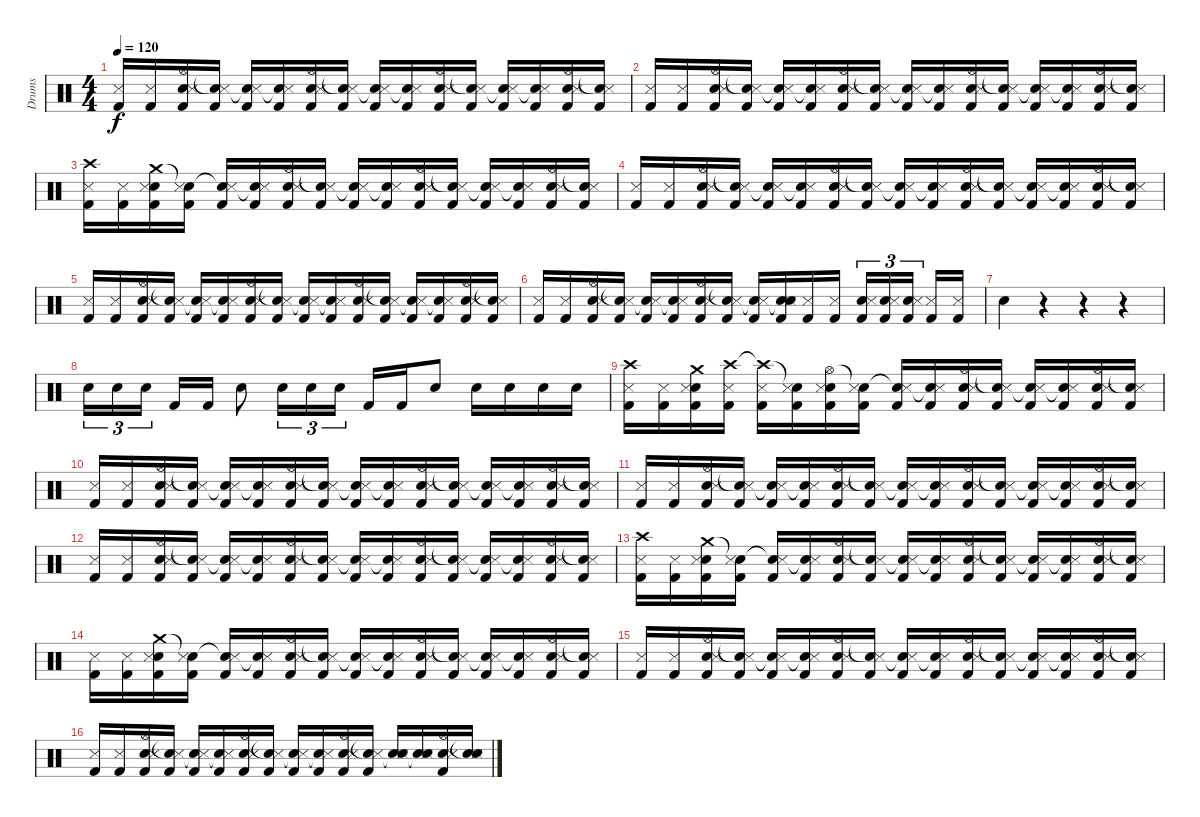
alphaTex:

\track ("Drums" "Drums") {instrument percussion}
\staff {score}
\articulation defaults
\ts (4 4)
\tempo 120
\clef neutral
\ks c
("Kick (hit) 2" "Snare (side stick) 3").16{dy f} ("Kick (hit) 2" "Snare (side stick) 3").16 ("Hi-Hat (open)" "Electric Snare (hit)" "Kick (hit) 2" "Snare (side stick) 3").16 ("Snare (hit)"{t} "Kick (hit) 2" "Snare (side stick) 3").16 ("Snare (hit)"{t} "Kick (hit) 2" "Snare (side stick) 3").16 ("Snare (hit)"{t} "Kick (hit) 2" "Snare (side stick) 3").16 ("Hi-Hat (open)" "Electric Snare (hit)" "Kick (hit) 2" "Snare (side stick) 3").16 ("Snare (hit)"{t} "Kick (hit) 2" "Snare (side stick) 3").16 ("Snare (hit)"{t} "Kick (hit) 2" "Snare (side stick) 3").16 ("Snare (hit)"{t} "Kick (hit) 2" "Snare (side stick) 3").16 ("Hi-Hat (open)" "Electric Snare (hit)" "Kick (hit) 2" "Snare (side stick) 3").16 ("Snare (hit)"{t} "Kick (hit) 2" "Snare (side stick) 3").16 ("Snare (hit)"{t} "Kick (hit) 2" "Snare (side stick) 3").16 ("Snare (hit)"{t} "Kick (hit) 2" "Snare (side stick) 3").16 ("Hi-Hat (open)" "Electric Snare (hit)" "Kick (hit) 2" "Snare (side stick) 3").16 ("Snare (hit)"{t} "Kick (hit) 2" "Snare (side stick) 3").16 |
("Kick (hit) 2" "Snare (side stick) 3").16 ("Kick (hit) 2" "Snare (side stick) 3").16 ("Hi-Hat (open)" "Electric Snare (hit)" "Kick (hit) 2" "Snare (side stick) 3").16 ("Snare (hit)"{t} "Kick (hit) 2" "Snare (side stick) 3").16 ("Snare (hit)"{t} "Kick (hit) 2" "Snare (side stick) 3").16 ("Snare (hit)"{t} "Kick (hit) 2" "Snare (side stick) 3").16 ("Hi-Hat (open)" "Electric Snare (hit)" "Kick (hit) 2" "Snare (side stick) 3").16 ("Snare (hit)"{t} "Kick (hit) 2" "Snare (side stick) 3").16 ("Snare (hit)"{t} "Kick (hit) 2" "Snare (side stick) 3").16 ("Snare (hit)"{t} "Kick (hit) 2" "Snare (side stick) 3").16 ("Hi-Hat (open)" "Electric Snare (hit)" "Kick (hit) 2" "Snare (side stick) 3").16 ("Snare (hit)"{t} "Kick (hit) 2" "Snare (side stick) 3").16 ("Snare (hit)"{t} "Kick (hit) 2" "Snare (side stick) 3").16 ("Snare (hit)"{t} "Kick (hit) 2" "Snare (side stick) 3").16 ("Hi-Hat (open)" "Electric Snare (hit)" "Kick (hit) 2" "Snare (side stick) 3").16 ("Snare (hit)"{t} "Kick (hit) 2" "Snare (side stick) 3").16 |
("Crash high (hit)" "Kick (hit) 2" "Snare (side stick) 3").16 ("Kick (hit) 2" "Snare (side stick) 3").16 ("Crash medium (hit)" "Electric Snare (hit)" "Kick (hit) 2" "Snare (side stick) 3").16 ("Snare (hit)"{t} "Kick (hit) 2" "Snare (side stick) 3").16 ("Snare (hit)"{t} "Kick (hit) 2" "Snare (side stick) 3").16 ("Snare (hit)"{t} "Kick (hit) 2" "Snare (side stick) 3").16 ("Hi-Hat (open)" "Electric Snare (hit)" "Kick (hit) 2" "Snare (side stick) 3").16 ("Snare (hit)"{t} "Kick (hit) 2" "Snare (side stick) 3").16 ("Snare (hit)"{t} "Kick (hit) 2" "Snare (side stick) 3").16 ("Snare (hit)"{t} "Kick (hit) 2" "Snare (side stick) 3").16 ("Hi-Hat (open)" "Electric Snare (hit)" "Kick (hit) 2" "Snare (side stick) 3").16 ("Snare (hit)"{t} "Kick (hit) 2" "Snare (side stick) 3").16 ("Snare (hit)"{t} "Kick (hit) 2" "Snare (side stick) 3").16 ("Snare (hit)"{t} "Kick (hit) 2" "Snare (side stick) 3").16 ("Hi-Hat (open)" "Electric Snare (hit)" "Kick (hit) 2" "Snare (side stick) 3").16 ("Snare (hit)"{t} "Kick (hit) 2" "Snare (side stick) 3").16 |
("Kick (hit) 2" "Snare (side stick) 3").16 ("Kick (hit) 2" "Snare (side stick) 3").16 ("Hi-Hat (open)" "Electric Snare (hit)" "Kick (hit) 2" "Snare (side stick) 3").16 ("Snare (hit)"{t} "Kick (hit) 2" "Snare (side stick) 3").16 ("Snare (hit)"{t} "Kick (hit) 2" "Snare (side stick) 3").16 ("Snare (hit)"{t} "Kick (hit) 2" "Snare (side stick) 3").16 ("Hi-Hat (open)" "Electric Snare (hit)" "Kick (hit) 2" "Snare (side stick) 3").16 ("Snare (hit)"{t} "Kick (hit) 2" "Snare (side stick) 3").16 ("Snare (hit)"{t} "Kick (hit) 2" "Snare (side stick) 3").16 ("Snare (hit)"{t} "Kick (hit) 2" "Snare (side stick) 3").16 ("Hi-Hat (open)" "Electric Snare (hit)" "Kick (hit) 2" "Snare (side stick) 3").16 ("Snare (hit)"{t} "Kick (hit) 2" "Snare (side stick) 3").16 ("Snare (hit)"{t} "Kick (hit) 2" "Snare (side stick) 3").16 ("Snare (hit)"{t} "Kick (hit) 2" "Snare (side stick) 3").16 ("Hi-Hat (open)" "Electric Snare (hit)" "Kick (hit) 2" "Snare (side stick) 3").16 ("Snare (hit)"{t} "Kick (hit) 2" "Snare (side stick) 3").16 |
("Kick (hit) 2" "Snare (side stick) 3").16 ("Kick (hit) 2" "Snare (side stick) 3").16 ("Hi-Hat (open)" "Electric Snare (hit)" "Kick (hit) 2" "Snare (side stick) 3").16 ("Snare (hit)"{t} "Kick (hit) 2" "Snare (side stick) 3").16 ("Snare (hit)"{t} "Kick (hit) 2" "Snare (side stick) 3").16 ("Snare (hit)"{t} "Kick (hit) 2" "Snare (side stick) 3").16 ("Hi-Hat (open)" "Electric Snare (hit)" "Kick (hit) 2" "Snare (side stick) 3").16 ("Snare (hit)"{t} "Kick (hit) 2" "Snare (side stick) 3").16 ("Snare (hit)"{t} "Kick (hit) 2" "Snare (side stick) 3").16 ("Snare (hit)"{t} "Kick (hit) 2" "Snare (side stick) 3").16 ("Hi-Hat (open)" "Electric Snare (hit)" "Kick (hit) 2" "Snare (side stick) 3").16 ("Snare (hit)"{t} "Kick (hit) 2" "Snare (side stick) 3").16 ("Snare (hit)"{t} "Kick (hit) 2" "Snare (side stick) 3").16 ("Snare (hit)"{t} "Kick (hit) 2" "Snare (side stick) 3").16 ("Hi-Hat (open)" "Electric Snare (hit)" "Kick (hit) 2" "Snare (side stick) 3").16 ("Snare (hit)"{t} "Kick (hit) 2" "Snare (side stick) 3").16 |
("Kick (hit) 2" "Snare (side stick) 3").16 ("Kick (hit) 2" "Snare (side stick) 3").16 ("Hi-Hat (open)" "Electric Snare (hit)" "Kick (hit) 2" "Snare (side stick) 3").16 ("Snare (hit)"{t} "Kick (hit) 2" "Snare (side stick) 3").16 ("Snare (hit)"{t} "Kick (hit) 2" "Snare (side stick) 3").16 ("Snare (hit)"{t} "Kick (hit) 2" "Snare (side stick) 3").16 ("Hi-Hat (open)" "Electric Snare (hit)" "Kick (hit) 2" "Snare (side stick) 3").16 ("Snare (hit)"{t} "Kick (hit) 2" "Snare (side stick) 3").16 ("Snare (hit)"{t} "Kick (hit) 2" "Snare (side stick) 3").16 ("Snare (hit)"{t} "Electric Snare (hit)" "Kick (hit) 2" "Snare (side stick) 3").16 ("Kick (hit) 2" "Snare (side stick) 3").16 ("Kick (hit) 2" "Snare (side stick) 3").16 ("Electric Snare (hit)" "Kick (hit) 2" "Snare (side stick) 3").16{tu (3 2)} ("Electric Snare (hit)" "Kick (hit) 2" "Snare (side stick) 3").16{tu (3 2)} ("Electric Snare (hit)" "Kick (hit) 2" "Snare (side stick) 3").16{tu (3 2)} ("Kick (hit) 2" "Snare (side stick) 3").16 ("Kick (hit) 2" "Snare (side stick) 3").16 |
"Electric Snare (hit)".4 r.4 r.4 r.4 |
"Electric Snare (hit)".16{tu (3 2)} "Electric Snare (hit)".16{tu (3 2)} "Electric Snare (hit)".16{tu (3 2)} "Kick (hit) 2".16 "Kick (hit) 2".16 "Electric Snare (hit)".8 "Electric Snare (hit)".16{tu (3 2)} "Electric Snare (hit)".16{tu (3 2)} "Electric Snare (hit)".16{tu (3 2)} "Kick (hit) 2".16 "Kick (hit) 2".16 "Electric Snare (hit)".8 "Electric Snare (hit)".16 "Electric Snare (hit)".16 "Electric Snare (hit)".16 "Electric Snare (hit)".16 |
("Crash high (hit)" "Kick (hit) 2" "Snare (side stick) 3").16 ("Kick (hit) 2" "Snare (side stick) 3").16 ("Crash medium (hit)" "Electric Snare (hit)" "Kick (hit) 2" "Snare (side stick) 3").16 ("Crash high (hit)" "Kick (hit) 2" "Snare (side stick) 3").16 ("Crash high (hit)"{t} "Kick (hit) 2" "Snare (side stick) 3").16 ("Snare (hit)"{t} "Kick (hit) 2" "Snare (side stick) 3").16 ("Hi-Hat (open)" "Electric Snare (hit)" "Kick (hit) 2" "Snare (side stick) 3").16 ("Snare (hit)"{t} "Kick (hit) 2" "Snare (side stick) 3").16 ("Snare (hit)"{t} "Kick (hit) 2" "Snare (side stick) 3").16 ("Snare (hit)"{t} "Kick (hit) 2" "Snare (side stick) 3").16 ("Hi-Hat (open)" "Electric Snare (hit)" "Kick (hit) 2" "Snare (side stick) 3").16 ("Snare (hit)"{t} "Kick (hit) 2" "Snare (side stick) 3").16 ("Snare (hit)"{t} "Kick (hit) 2" "Snare (side stick) 3").16 ("Snare (hit)"{t} "Kick (hit) 2" "Snare (side stick) 3").16 ("Hi-Hat (open)" "Electric Snare (hit)" "Kick (hit) 2" "Snare (side stick) 3").16 ("Snare (hit)"{t} "Kick (hit) 2" "Snare (side stick) 3").16 |
("Kick (hit) 2" "Snare (side stick) 3").16 ("Kick (hit) 2" "Snare (side stick) 3").16 ("Hi-Hat (open)" "Electric Snare (hit)" "Kick (hit) 2" "Snare (side stick) 3").16 ("Snare (hit)"{t} "Kick (hit) 2" "Snare (side stick) 3").16 ("Snare (hit)"{t} "Kick (hit) 2" "Snare (side stick) 3").16 ("Snare (hit)"{t} "Kick (hit) 2" "Snare (side stick) 3").16 ("Hi-Hat (open)" "Electric Snare (hit)" "Kick (hit) 2" "Snare (side stick) 3").16 ("Snare (hit)"{t} "Kick (hit) 2" "Snare (side stick) 3").16 ("Snare (hit)"{t} "Kick (hit) 2" "Snare (side stick) 3").16 ("Snare (hit)"{t} "Kick (hit) 2" "Snare (side stick) 3").16 ("Hi-Hat (open)" "Electric Snare (hit)" "Kick (hit) 2" "Snare (side stick) 3").16 ("Snare (hit)"{t} "Kick (hit) 2" "Snare (side stick) 3").16 ("Snare (hit)"{t} "Kick (hit) 2" "Snare (side stick) 3").16 ("Snare (hit)"{t} "Kick (hit) 2" "Snare (side stick) 3").16 ("Hi-Hat (open)" "Electric Snare (hit)" "Kick (hit) 2" "Snare (side stick) 3").16 ("Snare (hit)"{t} "Kick (hit) 2" "Snare (side stick) 3").16 |
("Kick (hit) 2" "Snare (side stick) 3").16 ("Kick (hit) 2" "Snare (side stick) 3").16 ("Hi-Hat (open)" "Electric Snare (hit)" "Kick (hit) 2" "Snare (side stick) 3").16 ("Snare (hit)"{t} "Kick (hit) 2" "Snare (side stick) 3").16 ("Snare (hit)"{t} "Kick (hit) 2" "Snare (side stick) 3").16 ("Snare (hit)"{t} "Kick (hit) 2" "Snare (side stick) 3").16 ("Hi-Hat (open)" "Electric Snare (hit)" "Kick (hit) 2" "Snare (side stick) 3").16 ("Snare (hit)"{t} "Kick (hit) 2" "Snare (side stick) 3").16 ("Snare (hit)"{t} "Kick (hit) 2" "Snare (side stick) 3").16 ("Snare (hit)"{t} "Kick (hit) 2" "Snare (side stick) 3").16 ("Hi-Hat (open)" "Electric Snare (hit)" "Kick (hit) 2" "Snare (side stick) 3").16 ("Snare (hit)"{t} "Kick (hit) 2" "Snare (side stick) 3").16 ("Snare (hit)"{t} "Kick (hit) 2" "Snare (side stick) 3").16 ("Snare (hit)"{t} "Kick (hit) 2" "Snare (side stick) 3").16 ("Hi-Hat (open)" "Electric Snare (hit)" "Kick (hit) 2" "Snare (side stick) 3").16 ("Snare (hit)"{t} "Kick (hit) 2" "Snare (side stick) 3").16 |
("Kick (hit) 2" "Snare (side stick) 3").16 ("Kick (hit) 2" "Snare (side stick) 3").16 ("Hi-Hat (open)" "Electric Snare (hit)" "Kick (hit) 2" "Snare (side stick) 3").16 ("Snare (hit)"{t} "Kick (hit) 2" "Snare (side stick) 3").16 ("Snare (hit)"{t} "Kick (hit) 2" "Snare (side stick) 3").16 ("Snare (hit)"{t} "Kick (hit) 2" "Snare (side stick) 3").16 ("Hi-Hat (open)" "Electric Snare (hit)" "Kick (hit) 2" "Snare (side stick) 3").16 ("Snare (hit)"{t} "Kick (hit) 2" "Snare (side stick) 3").16 ("Snare (hit)"{t} "Kick (hit) 2" "Snare (side stick) 3").16 ("Snare (hit)"{t} "Kick (hit) 2" "Snare (side stick) 3").16 ("Hi-Hat (open)" "Electric Snare (hit)" "Kick (hit) 2" "Snare (side stick) 3").16 ("Snare (hit)"{t} "Kick (hit) 2" "Snare (side stick) 3").16 ("Snare (hit)"{t} "Kick (hit) 2" "Snare (side stick) 3").16 ("Snare (hit)"{t} "Kick (hit) 2" "Snare (side stick) 3").16 ("Hi-Hat (open)" "Electric Snare (hit)" "Kick (hit) 2" "Snare (side stick) 3").16 ("Snare (hit)"{t} "Kick (hit) 2" "Snare (side stick) 3").16 |
("Crash high (hit)" "Kick (hit) 2" "Snare (side stick) 3").16 ("Kick (hit) 2" "Snare (side stick) 3").16 ("Crash medium (hit)" "Electric Snare (hit)" "Kick (hit) 2" "Snare (side stick) 3").16 ("Snare (hit)"{t} "Kick (hit) 2" "Snare (side stick) 3").16 ("Snare (hit)"{t} "Kick (hit) 2" "Snare (side stick) 3").16 ("Snare (hit)"{t} "Kick (hit) 2" "Snare (side stick) 3").16 ("Hi-Hat (open)" "Electric Snare (hit)" "Kick (hit) 2" "Snare (side stick) 3").16 ("Snare (hit)"{t} "Kick (hit) 2" "Snare (side stick) 3").16 ("Snare (hit)"{t} "Kick (hit) 2" "Snare (side stick) 3").16 ("Snare (hit)"{t} "Kick (hit) 2" "Snare (side stick) 3").16 ("Hi-Hat (open)" "Electric Snare (hit)" "Kick (hit) 2" "Snare (side stick) 3").16 ("Snare (hit)"{t} "Kick (hit) 2" "Snare (side stick) 3").16 ("Snare (hit)"{t} "Kick (hit) 2" "Snare (side stick) 3").16 ("Snare (hit)"{t} "Kick (hit) 2" "Snare (side stick) 3").16 ("Hi-Hat (open)" "Electric Snare (hit)" "Kick (hit) 2" "Snare (side stick) 3").16 ("Snare (hit)"{t} "Kick (hit) 2" "Snare (side stick) 3").16 |
("Kick (hit) 2" "Snare (side stick) 3").16 ("Kick (hit) 2" "Snare (side stick) 3").16 ("Crash medium (hit)" "Electric Snare (hit)" "Kick (hit) 2" "Snare (side stick) 3").16 ("Snare (hit)"{t} "Kick (hit) 2" "Snare (side stick) 3").16 ("Snare (hit)"{t} "Kick (hit) 2" "Snare (side stick) 3").16 ("Snare (hit)"{t} "Kick (hit) 2" "Snare (side stick) 3").16 ("Hi-Hat (open)" "Electric Snare (hit)" "Kick (hit) 2" "Snare (side stick) 3").16 ("Snare (hit)"{t} "Kick (hit) 2" "Snare (side stick) 3").16 ("Snare (hit)"{t} "Kick (hit) 2" "Snare (side stick) 3").16 ("Snare (hit)"{t} "Kick (hit) 2" "Snare (side stick) 3").16 ("Hi-Hat (open)" "Electric Snare (hit)" "Kick (hit) 2" "Snare (side stick) 3").16 ("Snare (hit)"{t} "Kick (hit) 2" "Snare (side stick) 3").16 ("Snare (hit)"{t} "Kick (hit) 2" "Snare (side stick) 3").16 ("Snare (hit)"{t} "Kick (hit) 2" "Snare (side stick) 3").16 ("Hi-Hat (open)" "Electric Snare (hit)" "Kick (hit) 2" "Snare (side stick) 3").16 ("Snare (hit)"{t} "Kick (hit) 2" "Snare (side stick) 3").16 |
("Kick (hit) 2" "Snare (side stick) 3").16 ("Kick (hit) 2" "Snare (side stick) 3").16 ("Hi-Hat (open)" "Electric Snare (hit)" "Kick (hit) 2" "Snare (side stick) 3").16 ("Snare (hit)"{t} "Kick (hit) 2" "Snare (side stick) 3").16 ("Snare (hit)"{t} "Kick (hit) 2" "Snare (side stick) 3").16 ("Snare (hit)"{t} "Kick (hit) 2" "Snare (side stick) 3").16 ("Hi-Hat (open)" "Electric Snare (hit)" "Kick (hit) 2" "Snare (side stick) 3").16 ("Snare (hit)"{t} "Kick (hit) 2" "Snare (side stick) 3").16 ("Snare (hit)"{t} "Kick (hit) 2" "Snare (side stick) 3").16 ("Snare (hit)"{t} "Kick (hit) 2" "Snare (side stick) 3").16 ("Hi-Hat (open)" "Electric Snare (hit)" "Kick (hit) 2" "Snare (side stick) 3").16 ("Snare (hit)"{t} "Kick (hit) 2" "Snare (side stick) 3").16 ("Snare (hit)"{t} "Kick (hit) 2" "Snare (side stick) 3").16 ("Snare (hit)"{t} "Kick (hit) 2" "Snare (side stick) 3").16 ("Hi-Hat (open)" "Electric Snare (hit)" "Kick (hit) 2" "Snare (side stick) 3").16 ("Snare (hit)"{t} "Kick (hit) 2" "Snare (side stick) 3").16 |
("Kick (hit) 2" "Snare (side stick) 3").16 ("Kick (hit) 2" "Snare (side stick) 3").16 ("Hi-Hat (open)" "Electric Snare (hit)" "Kick (hit) 2" "Snare (side stick) 3").16 ("Snare (hit)"{t} "Kick (hit) 2" "Snare (side stick) 3").16 ("Snare (hit)"{t} "Kick (hit) 2" "Snare (side stick) 3").16 ("Snare (hit)"{t} "Kick (hit) 2" "Snare (side stick) 3").16 ("Hi-Hat (open)" "Electric Snare (hit)" "Kick (hit) 2" "Snare (side stick) 3").16 ("Snare (hit)"{t} "Kick (hit) 2" "Snare (side stick) 3").16 ("Snare (hit)"{t} "Kick (hit) 2" "Snare (side stick) 3").16 ("Snare (hit)"{t} "Kick (hit) 2" "Snare (side stick) 3").16 ("Hi-Hat (open)" "Electric Snare (hit)" "Kick (hit) 2" "Snare (side stick) 3").16 ("Snare (hit)"{t} "Kick (hit) 2" "Snare (side stick) 3").16 ("Snare (hit)"{t} "Electric Snare (hit)" "Snare (side stick) 3").16 ("Snare (hit)"{t} "Electric Snare (hit)" "Snare (side stick) 3").16 ("Hi-Hat (open)" "Electric Snare (hit)" "Kick (hit) 2" "Snare (side stick) 3").16 ("Snare (hit)"{t} "Electric Snare (hit)" "Snare (side stick) 3").16
